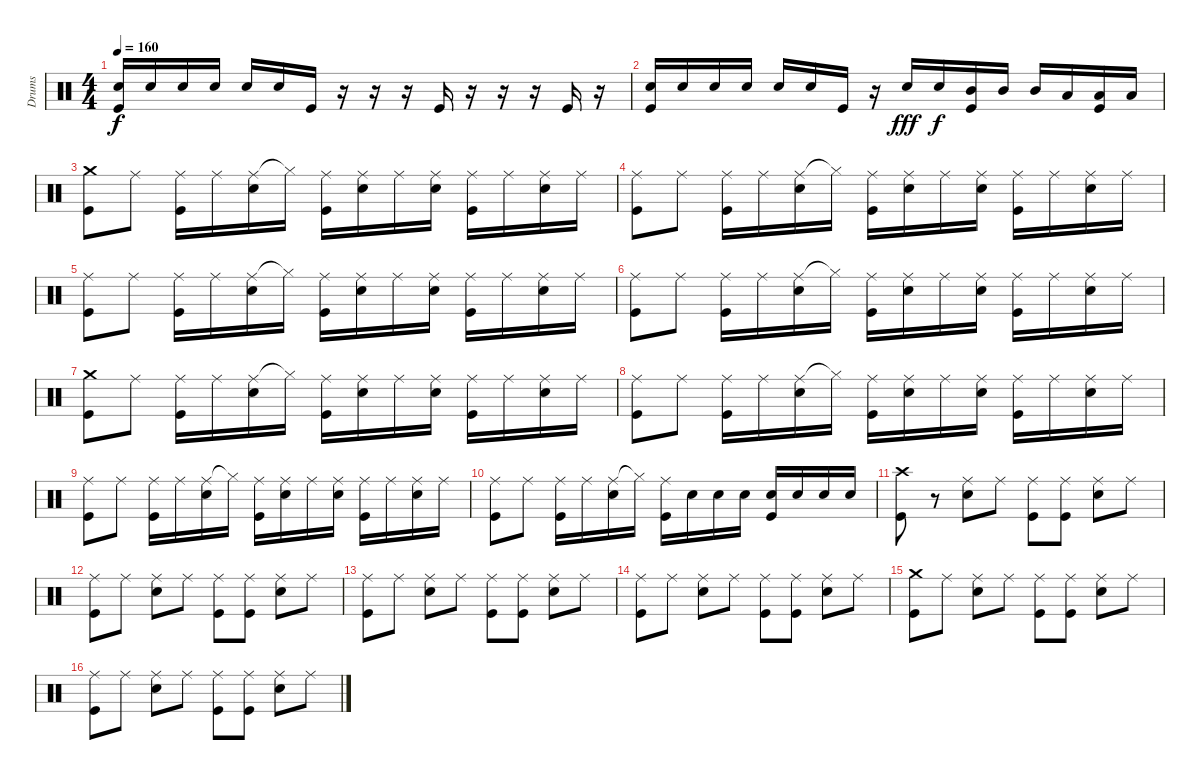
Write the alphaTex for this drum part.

\track ("Drums" "Drums") {instrument percussion}
\staff {score}
\articulation defaults
\ts (4 4)
\tempo 160
\clef neutral
\ks c
("Electric Snare (hit)" "Kick (hit)").16{dy f} "Electric Snare (hit)".16 "Electric Snare (hit)".16 "Electric Snare (hit)".16 "Electric Snare (hit)".16 "Electric Snare (hit)".16 "Kick (hit)".16 r.16 r.16 r.16 "Kick (hit)".16 r.16 r.16 r.16 "Kick (hit)".16 r.16 |
("Electric Snare (hit)" "Kick (hit)").16 "Electric Snare (hit)".16 "Electric Snare (hit)".16 "Electric Snare (hit)".16 "Electric Snare (hit)".16 "Electric Snare (hit)".16 "Kick (hit)".16 r.16 "Electric Snare (hit)".16{dy fff} "Electric Snare (hit)".16{dy f} ("Mid Tom (hit)" "Kick (hit)").16 "Mid Tom (hit)".16 "Mid Tom (hit)".16 "Low Tom (hit)".16 ("Low Tom (hit)" "Kick (hit)").16 "Low Tom (hit)".16 |
("Crash medium (hit)" "Kick (hit)").8 "Ride (middle)".8 ("Ride (middle)" "Kick (hit)").16 "Ride (middle)".16 ("Ride (middle)" "Electric Snare (hit)").16 "Hi-Hat (closed)"{t}.16 ("Ride (middle)" "Kick (hit)").16 ("Ride (middle)" "Electric Snare (hit)").16 "Ride (middle)".16 ("Ride (middle)" "Electric Snare (hit)").16 ("Ride (middle)" "Kick (hit)").16 "Ride (middle)".16 ("Ride (middle)" "Electric Snare (hit)").16 "Ride (middle)".16 |
("Ride (middle)" "Kick (hit)").8 "Ride (middle)".8 ("Ride (middle)" "Kick (hit)").16 "Ride (middle)".16 ("Ride (middle)" "Electric Snare (hit)").16 "Hi-Hat (closed)"{t}.16 ("Ride (middle)" "Kick (hit)").16 ("Ride (middle)" "Electric Snare (hit)").16 "Ride (middle)".16 ("Ride (middle)" "Electric Snare (hit)").16 ("Ride (middle)" "Kick (hit)").16 "Ride (middle)".16 ("Ride (middle)" "Electric Snare (hit)").16 "Ride (middle)".16 |
("Ride (middle)" "Kick (hit)").8 "Ride (middle)".8 ("Ride (middle)" "Kick (hit)").16 "Ride (middle)".16 ("Ride (middle)" "Electric Snare (hit)").16 "Hi-Hat (closed)"{t}.16 ("Ride (middle)" "Kick (hit)").16 ("Ride (middle)" "Electric Snare (hit)").16 "Ride (middle)".16 ("Ride (middle)" "Electric Snare (hit)").16 ("Ride (middle)" "Kick (hit)").16 "Ride (middle)".16 ("Ride (middle)" "Electric Snare (hit)").16 "Ride (middle)".16 |
("Ride (middle)" "Kick (hit)").8 "Ride (middle)".8 ("Ride (middle)" "Kick (hit)").16 "Ride (middle)".16 ("Ride (middle)" "Electric Snare (hit)").16 "Hi-Hat (closed)"{t}.16 ("Ride (middle)" "Kick (hit)").16 ("Ride (middle)" "Electric Snare (hit)").16 "Ride (middle)".16 ("Ride (middle)" "Electric Snare (hit)").16 ("Ride (middle)" "Kick (hit)").16 "Ride (middle)".16 ("Ride (middle)" "Electric Snare (hit)").16 "Ride (middle)".16 |
("Crash medium (hit)" "Kick (hit)").8 "Ride (middle)".8 ("Ride (middle)" "Kick (hit)").16 "Ride (middle)".16 ("Ride (middle)" "Electric Snare (hit)").16 "Hi-Hat (closed)"{t}.16 ("Ride (middle)" "Kick (hit)").16 ("Ride (middle)" "Electric Snare (hit)").16 "Ride (middle)".16 ("Ride (middle)" "Electric Snare (hit)").16 ("Ride (middle)" "Kick (hit)").16 "Ride (middle)".16 ("Ride (middle)" "Electric Snare (hit)").16 "Ride (middle)".16 |
("Ride (middle)" "Kick (hit)").8 "Ride (middle)".8 ("Ride (middle)" "Kick (hit)").16 "Ride (middle)".16 ("Ride (middle)" "Electric Snare (hit)").16 "Hi-Hat (closed)"{t}.16 ("Ride (middle)" "Kick (hit)").16 ("Ride (middle)" "Electric Snare (hit)").16 "Ride (middle)".16 ("Ride (middle)" "Electric Snare (hit)").16 ("Ride (middle)" "Kick (hit)").16 "Ride (middle)".16 ("Ride (middle)" "Electric Snare (hit)").16 "Ride (middle)".16 |
("Ride (middle)" "Kick (hit)").8 "Ride (middle)".8 ("Ride (middle)" "Kick (hit)").16 "Ride (middle)".16 ("Ride (middle)" "Electric Snare (hit)").16 "Hi-Hat (closed)"{t}.16 ("Ride (middle)" "Kick (hit)").16 ("Ride (middle)" "Electric Snare (hit)").16 "Ride (middle)".16 ("Ride (middle)" "Electric Snare (hit)").16 ("Ride (middle)" "Kick (hit)").16 "Ride (middle)".16 ("Ride (middle)" "Electric Snare (hit)").16 "Ride (middle)".16 |
("Ride (middle)" "Kick (hit)").8 "Ride (middle)".8 ("Ride (middle)" "Kick (hit)").16 "Ride (middle)".16 ("Ride (middle)" "Electric Snare (hit)").16 "Hi-Hat (closed)"{t}.16 ("Ride (middle)" "Kick (hit)").16 "Electric Snare (hit)".16 "Electric Snare (hit)".16 "Electric Snare (hit)".16 ("Electric Snare (hit)" "Kick (hit)").16 "Electric Snare (hit)".16 "Electric Snare (hit)".16 "Electric Snare (hit)".16 |
("Crash high (hit)" "Kick (hit)").8 r.8 ("Ride (middle)" "Electric Snare (hit)").8 "Ride (middle)".8 ("Ride (middle)" "Kick (hit)").8 ("Ride (middle)" "Kick (hit)").8 ("Ride (middle)" "Electric Snare (hit)").8 "Ride (middle)".8 |
("Ride (middle)" "Kick (hit)").8 "Ride (middle)".8 ("Ride (middle)" "Electric Snare (hit)").8 "Ride (middle)".8 ("Ride (middle)" "Kick (hit)").8 ("Ride (middle)" "Kick (hit)").8 ("Ride (middle)" "Electric Snare (hit)").8 "Ride (middle)".8 |
("Ride (middle)" "Kick (hit)").8 "Ride (middle)".8 ("Ride (middle)" "Electric Snare (hit)").8 "Ride (middle)".8 ("Ride (middle)" "Kick (hit)").8 ("Ride (middle)" "Kick (hit)").8 ("Ride (middle)" "Electric Snare (hit)").8 "Ride (middle)".8 |
("Ride (middle)" "Kick (hit)").8 "Ride (middle)".8 ("Ride (middle)" "Electric Snare (hit)").8 "Ride (middle)".8 ("Ride (middle)" "Kick (hit)").8 ("Ride (middle)" "Kick (hit)").8 ("Ride (middle)" "Electric Snare (hit)").8 "Ride (middle)".8 |
("Crash medium (hit)" "Kick (hit)").8 "Ride (middle)".8 ("Ride (middle)" "Electric Snare (hit)").8 "Ride (middle)".8 ("Ride (middle)" "Kick (hit)").8 ("Ride (middle)" "Kick (hit)").8 ("Ride (middle)" "Electric Snare (hit)").8 "Ride (middle)".8 |
("Ride (middle)" "Kick (hit)").8 "Ride (middle)".8 ("Ride (middle)" "Electric Snare (hit)").8 "Ride (middle)".8 ("Ride (middle)" "Kick (hit)").8 ("Ride (middle)" "Kick (hit)").8 ("Ride (middle)" "Electric Snare (hit)").8 "Ride (middle)".8
